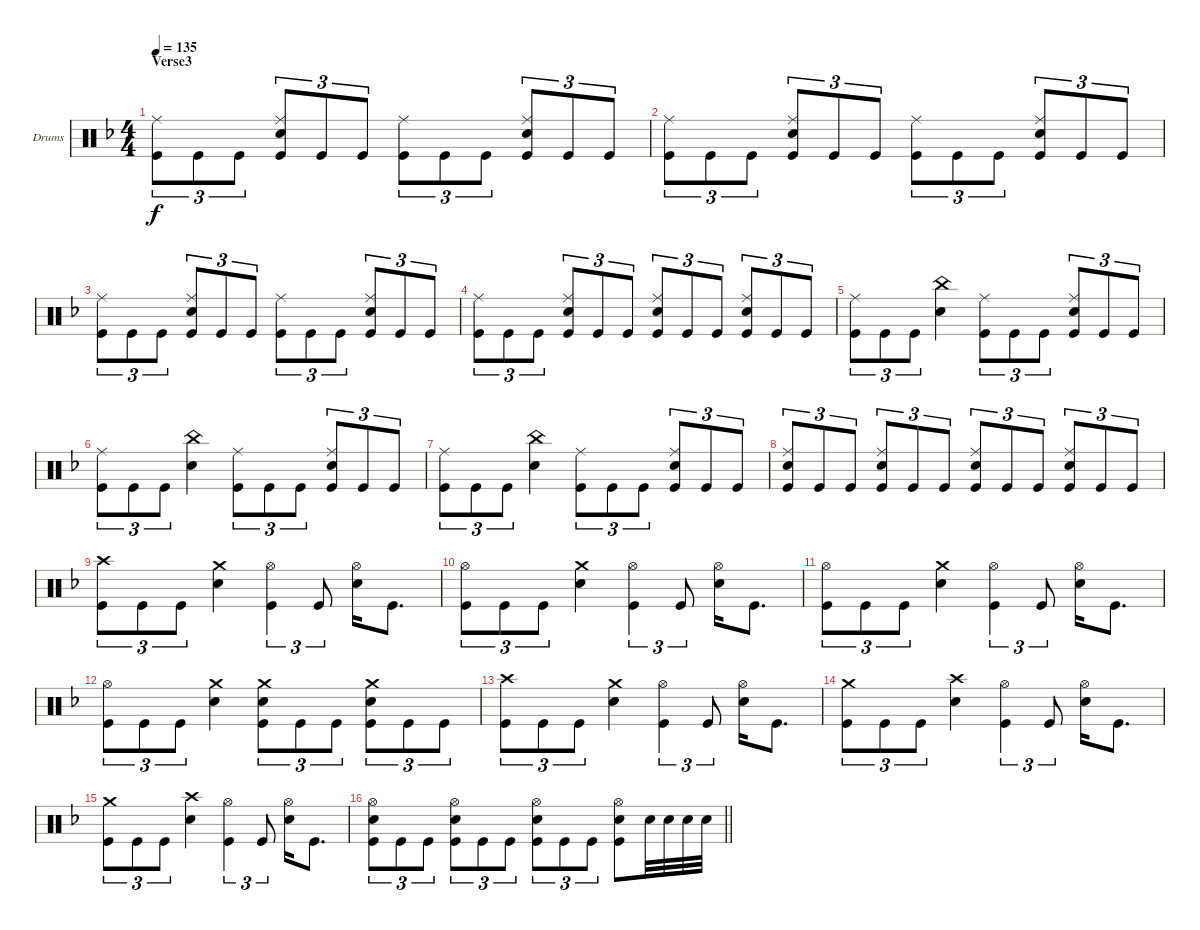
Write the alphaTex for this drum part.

\bracketExtendMode groupsimilarinstruments
\firstSystemTrackNameOrientation horizontal
\otherSystemsTrackNameOrientation horizontal
\track ("drums (Anton Zulganov)" "Drums") {instrument percussion}
\staff {score}
\articulation defaults
\ts (4 4)
\section ("" "Verse3")
\tempo 135
\clef neutral
\ks dminor
("Kick (hit)" "Ride (middle)").8{tu (3 2) dy f} "Kick (hit)".8{tu (3 2)} "Kick (hit)".8{tu (3 2)} ("Snare (hit) 2" "Kick (hit)" "Ride (middle)").8{tu (3 2)} "Kick (hit)".8{tu (3 2)} "Kick (hit)".8{tu (3 2)} ("Kick (hit)" "Ride (middle)").8{tu (3 2)} "Kick (hit)".8{tu (3 2)} "Kick (hit)".8{tu (3 2)} ("Kick (hit)" "Snare (hit) 2" "Ride (middle)").8{tu (3 2)} "Kick (hit)".8{tu (3 2)} "Kick (hit)".8{tu (3 2)} |
("Kick (hit)" "Ride (middle)").8{tu (3 2)} "Kick (hit)".8{tu (3 2)} "Kick (hit)".8{tu (3 2)} ("Snare (hit) 2" "Kick (hit)" "Ride (middle)").8{tu (3 2)} "Kick (hit)".8{tu (3 2)} "Kick (hit)".8{tu (3 2)} ("Kick (hit)" "Ride (middle)").8{tu (3 2)} "Kick (hit)".8{tu (3 2)} "Kick (hit)".8{tu (3 2)} ("Kick (hit)" "Snare (hit) 2" "Ride (middle)").8{tu (3 2)} "Kick (hit)".8{tu (3 2)} "Kick (hit)".8{tu (3 2)} |
("Kick (hit)" "Ride (middle)").8{tu (3 2)} "Kick (hit)".8{tu (3 2)} "Kick (hit)".8{tu (3 2)} ("Snare (hit) 2" "Kick (hit)" "Ride (middle)").8{tu (3 2)} "Kick (hit)".8{tu (3 2)} "Kick (hit)".8{tu (3 2)} ("Kick (hit)" "Ride (middle)").8{tu (3 2)} "Kick (hit)".8{tu (3 2)} "Kick (hit)".8{tu (3 2)} ("Kick (hit)" "Snare (hit) 2" "Ride (middle)").8{tu (3 2)} "Kick (hit)".8{tu (3 2)} "Kick (hit)".8{tu (3 2)} |
("Kick (hit)" "Ride (middle)").8{tu (3 2)} "Kick (hit)".8{tu (3 2)} "Kick (hit)".8{tu (3 2)} ("Snare (hit) 2" "Kick (hit)" "Ride (middle)").8{tu (3 2)} "Kick (hit)".8{tu (3 2)} "Kick (hit)".8{tu (3 2)} ("Kick (hit)" "Ride (middle)" "Snare (hit) 2").8{tu (3 2)} "Kick (hit)".8{tu (3 2)} "Kick (hit)".8{tu (3 2)} ("Kick (hit)" "Snare (hit) 2" "Ride (middle)").8{tu (3 2)} "Kick (hit)".8{tu (3 2)} "Kick (hit)".8{tu (3 2)} |
("Kick (hit)" "Ride (middle)").8{tu (3 2)} "Kick (hit)".8{tu (3 2)} "Kick (hit)".8{tu (3 2)} ("Snare (hit) 2" "China (hit)").4 ("Kick (hit)" "Ride (middle)").8{tu (3 2)} "Kick (hit)".8{tu (3 2)} "Kick (hit)".8{tu (3 2)} ("Snare (hit) 2" "Kick (hit)" "Ride (middle)").8{tu (3 2)} "Kick (hit)".8{tu (3 2)} "Kick (hit)".8{tu (3 2)} |
("Kick (hit)" "Ride (middle)").8{tu (3 2)} "Kick (hit)".8{tu (3 2)} "Kick (hit)".8{tu (3 2)} ("Snare (hit) 2" "China (hit)").4 ("Kick (hit)" "Ride (middle)").8{tu (3 2)} "Kick (hit)".8{tu (3 2)} "Kick (hit)".8{tu (3 2)} ("Snare (hit) 2" "Kick (hit)" "Ride (middle)").8{tu (3 2)} "Kick (hit)".8{tu (3 2)} "Kick (hit)".8{tu (3 2)} |
("Kick (hit)" "Ride (middle)").8{tu (3 2)} "Kick (hit)".8{tu (3 2)} "Kick (hit)".8{tu (3 2)} ("Snare (hit) 2" "China (hit)").4 ("Kick (hit)" "Ride (middle)").8{tu (3 2)} "Kick (hit)".8{tu (3 2)} "Kick (hit)".8{tu (3 2)} ("Snare (hit) 2" "Kick (hit)" "Ride (middle)").8{tu (3 2)} "Kick (hit)".8{tu (3 2)} "Kick (hit)".8{tu (3 2)} |
("Snare (hit) 2" "Kick (hit)" "Ride (middle)").8{tu (3 2)} "Kick (hit)".8{tu (3 2)} "Kick (hit)".8{tu (3 2)} ("Snare (hit) 2" "Kick (hit)" "Ride (middle)").8{tu (3 2)} "Kick (hit)".8{tu (3 2)} "Kick (hit)".8{tu (3 2)} ("Snare (hit) 2" "Kick (hit)" "Ride (middle)").8{tu (3 2)} "Kick (hit)".8{tu (3 2)} "Kick (hit)".8{tu (3 2)} ("Snare (hit) 2" "Kick (hit)" "Ride (middle)").8{tu (3 2)} "Kick (hit)".8{tu (3 2)} "Kick (hit)".8{tu (3 2)} |
("Kick (hit)" "Crash high (hit)").8{tu (3 2)} "Kick (hit)".8{tu (3 2)} "Kick (hit)".8{tu (3 2)} ("Snare (hit) 2" "Crash medium (hit)").4 ("Hi-Hat (open)" "Kick (hit)").4{tu (3 2)} "Kick (hit)".8{tu (3 2)} ("Hi-Hat (open)" "Snare (hit) 2").16 "Kick (hit)".8{d} |
("Hi-Hat (open)" "Kick (hit)").8{tu (3 2)} "Kick (hit)".8{tu (3 2)} "Kick (hit)".8{tu (3 2)} ("Snare (hit) 2" "Crash medium (hit)").4 ("Hi-Hat (open)" "Kick (hit)").4{tu (3 2)} "Kick (hit)".8{tu (3 2)} ("Hi-Hat (open)" "Snare (hit) 2").16 "Kick (hit)".8{d} |
("Hi-Hat (open)" "Kick (hit)").8{tu (3 2)} "Kick (hit)".8{tu (3 2)} "Kick (hit)".8{tu (3 2)} ("Snare (hit) 2" "Crash medium (hit)").4 ("Hi-Hat (open)" "Kick (hit)").4{tu (3 2)} "Kick (hit)".8{tu (3 2)} ("Hi-Hat (open)" "Snare (hit) 2").16 "Kick (hit)".8{d} |
("Hi-Hat (open)" "Kick (hit)").8{tu (3 2)} "Kick (hit)".8{tu (3 2)} "Kick (hit)".8{tu (3 2)} ("Snare (hit) 2" "Crash medium (hit)").4 ("Kick (hit)" "Snare (hit) 2" "Crash medium (hit)").8{tu (3 2)} "Kick (hit)".8{tu (3 2)} "Kick (hit)".8{tu (3 2)} ("Snare (hit) 2" "Kick (hit)" "Crash medium (hit)").8{tu (3 2)} "Kick (hit)".8{tu (3 2)} "Kick (hit)".8{tu (3 2)} |
("Kick (hit)" "Crash high (hit)").8{tu (3 2)} "Kick (hit)".8{tu (3 2)} "Kick (hit)".8{tu (3 2)} ("Snare (hit) 2" "Crash medium (hit)").4 ("Hi-Hat (open)" "Kick (hit)").4{tu (3 2)} "Kick (hit)".8{tu (3 2)} ("Hi-Hat (open)" "Snare (hit) 2").16 "Kick (hit)".8{d} |
("Kick (hit)" "Crash medium (hit)").8{tu (3 2)} "Kick (hit)".8{tu (3 2)} "Kick (hit)".8{tu (3 2)} ("Snare (hit) 2" "Crash high (hit)").4 ("Hi-Hat (open)" "Kick (hit)").4{tu (3 2)} "Kick (hit)".8{tu (3 2)} ("Hi-Hat (open)" "Snare (hit) 2").16 "Kick (hit)".8{d} |
("Kick (hit)" "Crash medium (hit)").8{tu (3 2)} "Kick (hit)".8{tu (3 2)} "Kick (hit)".8{tu (3 2)} ("Snare (hit) 2" "Crash high (hit)").4 ("Hi-Hat (open)" "Kick (hit)").4{tu (3 2)} "Kick (hit)".8{tu (3 2)} ("Hi-Hat (open)" "Snare (hit) 2").16 "Kick (hit)".8{d} |
\barLineRight lightlight
("Snare (hit) 2" "Kick (hit)" "Hi-Hat (open)").8{tu (3 2)} "Kick (hit)".8{tu (3 2)} "Kick (hit)".8{tu (3 2)} ("Snare (hit) 2" "Kick (hit)" "Hi-Hat (open)").8{tu (3 2)} "Kick (hit)".8{tu (3 2)} "Kick (hit)".8{tu (3 2)} ("Snare (hit) 2" "Kick (hit)" "Hi-Hat (open)").8{tu (3 2)} "Kick (hit)".8{tu (3 2)} "Kick (hit)".8{tu (3 2)} ("Snare (hit) 2" "Kick (hit)" "Hi-Hat (open)").8 "Snare (hit) 2".32 "Snare (hit) 2".32 "Snare (hit) 2".32 "Snare (hit) 2".32
